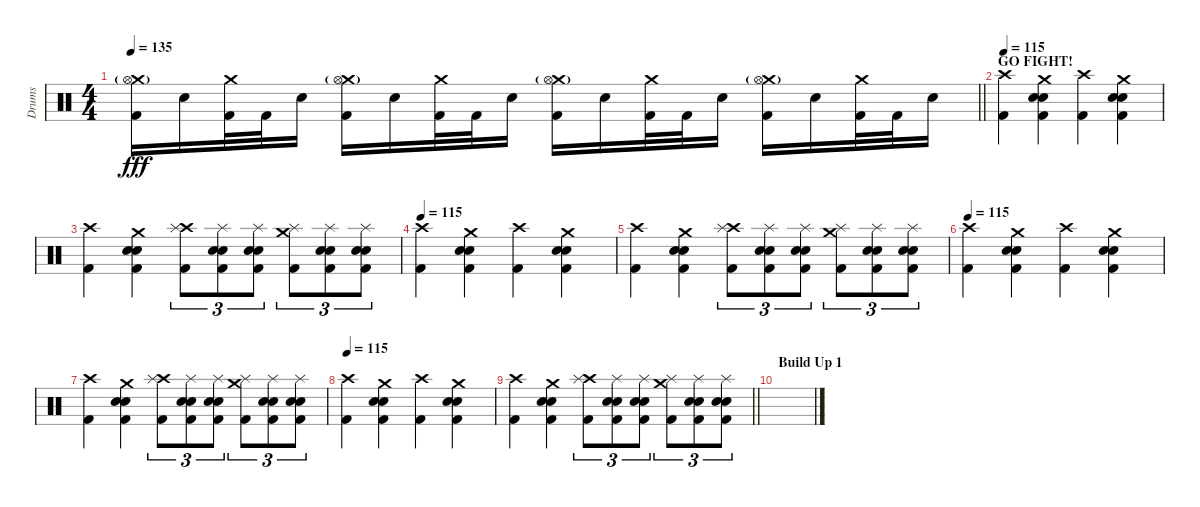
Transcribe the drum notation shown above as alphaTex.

\track ("Drums" "Drums") {instrument percussion}
\staff {score}
\articulation defaults
\ts (4 4)
\tempo 135
\clef neutral
\barLineRight lightlight
\ks c
("Crash medium (hit)" "Hi-Hat (open)"{g} "Kick (hit) 2").16{dy fff} "Electric Snare (hit)".16 ("Crash medium (hit)" "Kick (hit) 2").32 "Kick (hit) 2".32 "Electric Snare (hit)".16 ("Crash medium (hit)" "Hi-Hat (open)"{g} "Kick (hit) 2").16 "Electric Snare (hit)".16 ("Crash medium (hit)" "Kick (hit) 2").32 "Kick (hit) 2".32 "Electric Snare (hit)".16 ("Crash medium (hit)" "Hi-Hat (open)"{g} "Kick (hit) 2").16 "Electric Snare (hit)".16 ("Crash medium (hit)" "Kick (hit) 2").32 "Kick (hit) 2".32 "Electric Snare (hit)".16 ("Crash medium (hit)" "Hi-Hat (open)"{g} "Kick (hit) 2").16 "Electric Snare (hit)".16 ("Crash medium (hit)" "Kick (hit) 2").32 "Kick (hit) 2".32 "Electric Snare (hit)".16 |
\section ("" "GO FIGHT!")
\tempo 115
("Crash high (hit)" "Kick (hit) 2").4 ("Crash medium (hit)" "Electric Snare (hit)" "Snare (hit) 2" "Kick (hit) 2").4 ("Crash high (hit)" "Kick (hit) 2").4 ("Crash medium (hit)" "Electric Snare (hit)" "Snare (hit) 2" "Kick (hit) 2").4 |
("Crash high (hit)" "Kick (hit) 2").4 ("Crash medium (hit)" "Electric Snare (hit)" "Snare (hit) 2" "Kick (hit) 2").4 ("Crash high (hit)" "Splash (hit)" "Kick (hit) 2").8{tu (3 2)} ("Splash (hit)" "Electric Snare (hit)" "Snare (hit) 2" "Kick (hit) 2").8{tu (3 2)} ("Splash (hit)" "Electric Snare (hit)" "Snare (hit) 2" "Kick (hit) 2").8{tu (3 2)} ("Crash medium (hit)" "Splash (hit)" "Kick (hit) 2").8{tu (3 2)} ("Splash (hit)" "Electric Snare (hit)" "Snare (hit) 2" "Kick (hit) 2").8{tu (3 2)} ("Splash (hit)" "Electric Snare (hit)" "Snare (hit) 2" "Kick (hit) 2").8{tu (3 2)} |
\tempo 115
("Crash high (hit)" "Kick (hit) 2").4 ("Crash medium (hit)" "Electric Snare (hit)" "Snare (hit) 2" "Kick (hit) 2").4 ("Crash high (hit)" "Kick (hit) 2").4 ("Crash medium (hit)" "Electric Snare (hit)" "Snare (hit) 2" "Kick (hit) 2").4 |
("Crash high (hit)" "Kick (hit) 2").4 ("Crash medium (hit)" "Electric Snare (hit)" "Snare (hit) 2" "Kick (hit) 2").4 ("Crash high (hit)" "Splash (hit)" "Kick (hit) 2").8{tu (3 2)} ("Splash (hit)" "Electric Snare (hit)" "Snare (hit) 2" "Kick (hit) 2").8{tu (3 2)} ("Splash (hit)" "Electric Snare (hit)" "Snare (hit) 2" "Kick (hit) 2").8{tu (3 2)} ("Crash medium (hit)" "Splash (hit)" "Kick (hit) 2").8{tu (3 2)} ("Splash (hit)" "Electric Snare (hit)" "Snare (hit) 2" "Kick (hit) 2").8{tu (3 2)} ("Splash (hit)" "Electric Snare (hit)" "Snare (hit) 2" "Kick (hit) 2").8{tu (3 2)} |
\tempo 115
("Crash high (hit)" "Kick (hit) 2").4 ("Crash medium (hit)" "Electric Snare (hit)" "Snare (hit) 2" "Kick (hit) 2").4 ("Crash high (hit)" "Kick (hit) 2").4 ("Crash medium (hit)" "Electric Snare (hit)" "Snare (hit) 2" "Kick (hit) 2").4 |
("Crash high (hit)" "Kick (hit) 2").4 ("Crash medium (hit)" "Electric Snare (hit)" "Snare (hit) 2" "Kick (hit) 2").4 ("Crash high (hit)" "Splash (hit)" "Kick (hit) 2").8{tu (3 2)} ("Splash (hit)" "Electric Snare (hit)" "Snare (hit) 2" "Kick (hit) 2").8{tu (3 2)} ("Splash (hit)" "Electric Snare (hit)" "Snare (hit) 2" "Kick (hit) 2").8{tu (3 2)} ("Crash medium (hit)" "Splash (hit)" "Kick (hit) 2").8{tu (3 2)} ("Splash (hit)" "Electric Snare (hit)" "Snare (hit) 2" "Kick (hit) 2").8{tu (3 2)} ("Splash (hit)" "Electric Snare (hit)" "Snare (hit) 2" "Kick (hit) 2").8{tu (3 2)} |
\tempo 115
("Crash high (hit)" "Kick (hit) 2").4 ("Crash medium (hit)" "Electric Snare (hit)" "Snare (hit) 2" "Kick (hit) 2").4 ("Crash high (hit)" "Kick (hit) 2").4 ("Crash medium (hit)" "Electric Snare (hit)" "Snare (hit) 2" "Kick (hit) 2").4 |
\barLineRight lightlight
("Crash high (hit)" "Kick (hit) 2").4 ("Crash medium (hit)" "Electric Snare (hit)" "Snare (hit) 2" "Kick (hit) 2").4 ("Crash high (hit)" "Splash (hit)" "Kick (hit) 2").8{tu (3 2)} ("Splash (hit)" "Electric Snare (hit)" "Snare (hit) 2" "Kick (hit) 2").8{tu (3 2)} ("Splash (hit)" "Electric Snare (hit)" "Snare (hit) 2" "Kick (hit) 2").8{tu (3 2)} ("Crash medium (hit)" "Splash (hit)" "Kick (hit) 2").8{tu (3 2)} ("Splash (hit)" "Electric Snare (hit)" "Snare (hit) 2" "Kick (hit) 2").8{tu (3 2)} ("Splash (hit)" "Electric Snare (hit)" "Snare (hit) 2" "Kick (hit) 2").8{tu (3 2)} |
\section ("" "Build Up 1")
